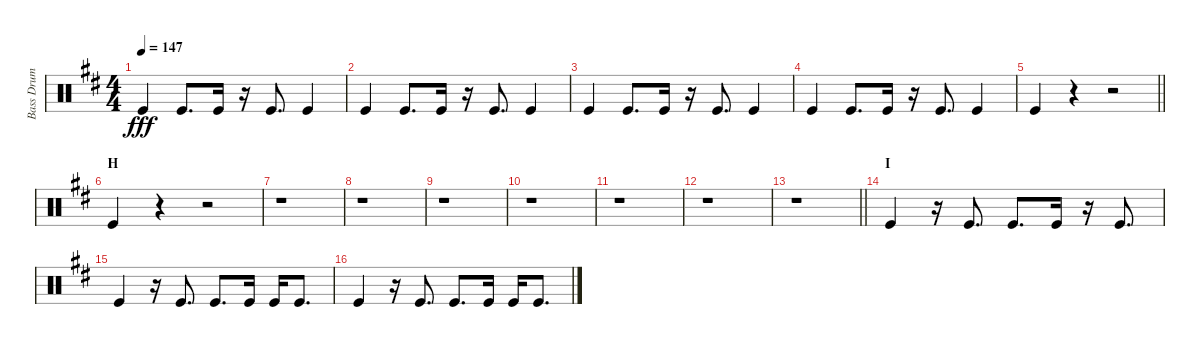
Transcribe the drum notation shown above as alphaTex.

\track ("Bass Drum" "Bass Drum") {instrument percussion}
\staff {score}
\articulation defaults
\ts (4 4)
\tempo 147
\clef neutral
\ks d "Kick (hit)".4{dy fff} "Kick (hit)".8{d} "Kick (hit)".16
r.16 "Kick (hit)".8{d} "Kick (hit)".4 |
"Kick (hit)".4 "Kick (hit)".8{d} "Kick (hit)".16 r.16 "Kick (hit)".8{d} "Kick (hit)".4 |
"Kick (hit)".4 "Kick (hit)".8{d} "Kick (hit)".16 r.16 "Kick (hit)".8{d} "Kick (hit)".4 |
"Kick (hit)".4 "Kick (hit)".8{d} "Kick (hit)".16 r.16 "Kick (hit)".8{d} "Kick (hit)".4 |
\barLineRight lightlight "Kick (hit)".4
r.4 r.2 |
\section ("" "H")
"Kick (hit)".4 r.4 r.2 |
r.1 |
r.1 |
r.1 |
r.1 |
r.1 |
r.1 |
\barLineRight lightlight
r.1 |
\section ("" "I")
"Kick (hit)".4 r.16 "Kick (hit)".8{d} "Kick (hit)".8{d} "Kick (hit)".16 r.16 "Kick (hit)".8{d} |
"Kick (hit)".4 r.16 "Kick (hit)".8{d} "Kick (hit)".8{d} "Kick (hit)".16 "Kick (hit)".16 "Kick (hit)".8{d} |
"Kick (hit)".4 r.16 "Kick (hit)".8{d} "Kick (hit)".8{d} "Kick (hit)".16 "Kick (hit)".16 "Kick (hit)".8{d}
